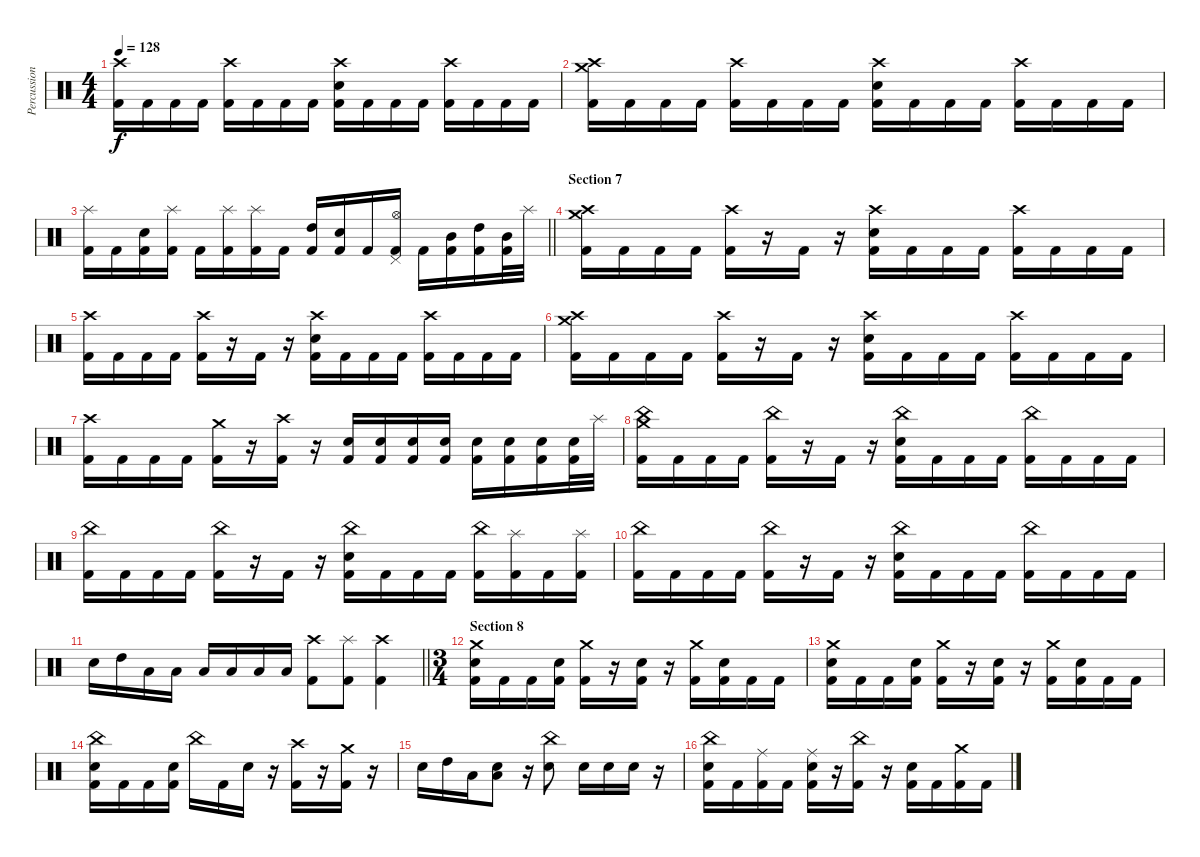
\track ("Percussion" "Percussion") {instrument percussion}
\staff {score}
\articulation defaults
\ts (4 4)
\tempo 128
\clef neutral
\ks c
("Crash high (hit)" "Kick (hit) 2").16{dy f} "Kick (hit) 2".16 "Kick (hit) 2".16 "Kick (hit) 2".16 ("Crash high (hit)" "Kick (hit) 2").16 "Kick (hit) 2".16 "Kick (hit) 2".16 "Kick (hit) 2".16 ("Crash high (hit)" "Snare (hit) 2" "Kick (hit) 2").16 "Kick (hit) 2".16 "Kick (hit) 2".16 "Kick (hit) 2".16 ("Crash high (hit)" "Kick (hit) 2").16 "Kick (hit) 2".16 "Kick (hit) 2".16 "Kick (hit) 2".16 |
("Crash high (hit)" "Crash medium (hit)" "Kick (hit) 2").16 "Kick (hit) 2".16 "Kick (hit) 2".16 "Kick (hit) 2".16 ("Crash high (hit)" "Kick (hit) 2").16 "Kick (hit) 2".16 "Kick (hit) 2".16 "Kick (hit) 2".16 ("Crash high (hit)" "Snare (hit) 2" "Kick (hit) 2").16 "Kick (hit) 2".16 "Kick (hit) 2".16 "Kick (hit) 2".16 ("Crash high (hit)" "Kick (hit) 2").16 "Kick (hit) 2".16 "Kick (hit) 2".16 "Kick (hit) 2".16 |
\barLineRight lightlight
("Splash (hit)" "Kick (hit) 2").16 "Kick (hit) 2".16 ("Snare (hit) 2" "Kick (hit) 2").16 ("Splash (hit)" "Kick (hit) 2").16 "Kick (hit) 2".16 ("Splash (hit)" "Kick (hit) 2").16 ("Splash (hit)" "Kick (hit) 2").16 "Kick (hit) 2".16 ("High Tom (hit)" "Kick (hit) 2").16 ("Snare (hit) 2" "Kick (hit) 2").16 "Kick (hit) 2".16 ("Hi-Hat (open)" "Pedal Hi-Hat (hit)" "Kick (hit) 2").16 "Kick (hit) 2".16 ("Mid Tom (hit)" "Kick (hit) 2").16 ("High Tom (hit)" "Kick (hit) 2").16 ("Mid Tom (hit)" "Kick (hit) 2").32 "Splash (hit)".32 |
\section ("" "Section 7")
("Crash medium (hit)" "Crash high (hit)" "Kick (hit) 2").16 "Kick (hit) 2".16 "Kick (hit) 2".16 "Kick (hit) 2".16 ("Crash high (hit)" "Kick (hit) 2").16 r.16 "Kick (hit) 2".16 r.16 ("Crash high (hit)" "Snare (hit) 2" "Kick (hit) 2").16 "Kick (hit) 2".16 "Kick (hit) 2".16 "Kick (hit) 2".16 ("Crash high (hit)" "Kick (hit) 2").16 "Kick (hit) 2".16 "Kick (hit) 2".16 "Kick (hit) 2".16 |
("Crash high (hit)" "Kick (hit) 2").16 "Kick (hit) 2".16 "Kick (hit) 2".16 "Kick (hit) 2".16 ("Crash high (hit)" "Kick (hit) 2").16 r.16 "Kick (hit) 2".16 r.16 ("Crash high (hit)" "Snare (hit) 2" "Kick (hit) 2").16 "Kick (hit) 2".16 "Kick (hit) 2".16 "Kick (hit) 2".16 ("Crash high (hit)" "Kick (hit) 2").16 "Kick (hit) 2".16 "Kick (hit) 2".16 "Kick (hit) 2".16 |
("Crash medium (hit)" "Crash high (hit)" "Kick (hit) 2").16 "Kick (hit) 2".16 "Kick (hit) 2".16 "Kick (hit) 2".16 ("Crash high (hit)" "Kick (hit) 2").16 r.16 "Kick (hit) 2".16 r.16 ("Crash high (hit)" "Snare (hit) 2" "Kick (hit) 2").16 "Kick (hit) 2".16 "Kick (hit) 2".16 "Kick (hit) 2".16 ("Crash high (hit)" "Kick (hit) 2").16 "Kick (hit) 2".16 "Kick (hit) 2".16 "Kick (hit) 2".16 |
("Crash high (hit)" "Kick (hit) 2").16 "Kick (hit) 2".16 "Kick (hit) 2".16 "Kick (hit) 2".16 ("Crash medium (hit)" "Kick (hit) 2").16 r.16 ("Crash high (hit)" "Kick (hit) 2").16 r.16 ("Snare (hit) 2" "Kick (hit) 2").16 ("Snare (hit) 2" "Kick (hit) 2").16 ("Snare (hit) 2" "Kick (hit) 2").16 ("Snare (hit) 2" "Kick (hit) 2").16 ("Snare (hit) 2" "Kick (hit) 2").16 ("Snare (hit) 2" "Kick (hit) 2").16 ("Snare (hit) 2" "Kick (hit) 2").16 ("Snare (hit) 2" "Kick (hit) 2").32 "Splash (hit)".32 |
("China (hit)" "Crash medium (hit)" "Kick (hit) 2").16 "Kick (hit) 2".16 "Kick (hit) 2".16 "Kick (hit) 2".16 ("China (hit)" "Kick (hit) 2").16 r.16 "Kick (hit) 2".16 r.16 ("China (hit)" "Snare (hit) 2" "Kick (hit) 2").16 "Kick (hit) 2".16 "Kick (hit) 2".16 "Kick (hit) 2".16 ("China (hit)" "Kick (hit) 2").16 "Kick (hit) 2".16 "Kick (hit) 2".16 "Kick (hit) 2".16 |
("China (hit)" "Kick (hit) 2").16 "Kick (hit) 2".16 "Kick (hit) 2".16 "Kick (hit) 2".16 ("China (hit)" "Kick (hit) 2").16 r.16 "Kick (hit) 2".16 r.16 ("China (hit)" "Snare (hit) 2" "Kick (hit) 2").16 "Kick (hit) 2".16 "Kick (hit) 2".16 "Kick (hit) 2".16 ("China (hit)" "Kick (hit) 2").16 ("Splash (hit)" "Kick (hit) 2").16 "Kick (hit) 2".16 ("Splash (hit)" "Kick (hit) 2").16 |
("China (hit)" "Kick (hit) 2").16 "Kick (hit) 2".16 "Kick (hit) 2".16 "Kick (hit) 2".16 ("China (hit)" "Kick (hit) 2").16 r.16 "Kick (hit) 2".16 r.16 ("China (hit)" "Snare (hit) 2" "Kick (hit) 2").16 "Kick (hit) 2".16 "Kick (hit) 2".16 "Kick (hit) 2".16 ("China (hit)" "Kick (hit) 2").16 "Kick (hit) 2".16 "Kick (hit) 2".16 "Kick (hit) 2".16 |
\barLineRight lightlight "Snare (hit) 2".16 "High Tom (hit)".16 "Low Tom (hit)".16 "Low Tom (hit)".16 "Low Tom (hit)".16 "Low Tom (hit)".16 "Low Tom (hit)".16 "Low Tom (hit)".16
("Crash high (hit)" "Kick (hit) 2").8 ("Splash (hit)" "Kick (hit) 2").8 ("Crash high (hit)" "Kick (hit) 2").4 |
\ts (3 4)
\section ("" "Section 8")
("Crash medium (hit)" "Snare (hit) 2" "Kick (hit) 2").16 "Kick (hit) 2".16 "Kick (hit) 2".16 ("Snare (hit) 2" "Kick (hit) 2").16 ("Crash medium (hit)" "Kick (hit) 2").16 r.16 ("Snare (hit) 2" "Kick (hit) 2").16 r.16 ("Crash medium (hit)" "Kick (hit) 2").16 ("Snare (hit) 2" "Kick (hit) 2").16 "Kick (hit) 2".16 "Kick (hit) 2".16 |
("Crash medium (hit)" "Snare (hit) 2" "Kick (hit) 2").16 "Kick (hit) 2".16 "Kick (hit) 2".16 ("Snare (hit) 2" "Kick (hit) 2").16 ("Crash medium (hit)" "Kick (hit) 2").16 r.16 ("Snare (hit) 2" "Kick (hit) 2").16 r.16 ("Crash medium (hit)" "Kick (hit) 2").16 ("Snare (hit) 2" "Kick (hit) 2").16 "Kick (hit) 2".16 "Kick (hit) 2".16 |
("China (hit)" "Snare (hit) 2" "Kick (hit) 2").16 "Kick (hit) 2".16 "Kick (hit) 2".16 ("Snare (hit) 2" "Kick (hit) 2").16 "China (hit)".16 "Kick (hit) 2".16 "Snare (hit) 2".16 r.16 ("Crash high (hit)" "Kick (hit) 2").16 r.16 ("Crash medium (hit)" "Kick (hit) 2").16 r.16 |
"Snare (hit) 2".16 "High Tom (hit)".16 "Low Tom (hit)".16 ("Low Tom (hit)" "Snare (hit) 2").8 r.16 ("China (hit)" "Snare (hit) 2").8 "Snare (hit) 2".16 "Snare (hit) 2".16 "Snare (hit) 2".16 r.16 |
("China (hit)" "Snare (hit) 2" "Kick (hit) 2").16 "Kick (hit) 2".16 ("Ride (middle)" "Kick (hit) 2").16 "Kick (hit) 2".16 ("Ride (middle)" "Snare (hit) 2" "Kick (hit) 2").16 r.16 ("China (hit)" "Kick (hit) 2").16 r.16 ("Snare (hit) 2" "Kick (hit) 2").16 "Kick (hit) 2".16 ("Crash medium (hit)" "Kick (hit) 2").16 "Kick (hit) 2".16
